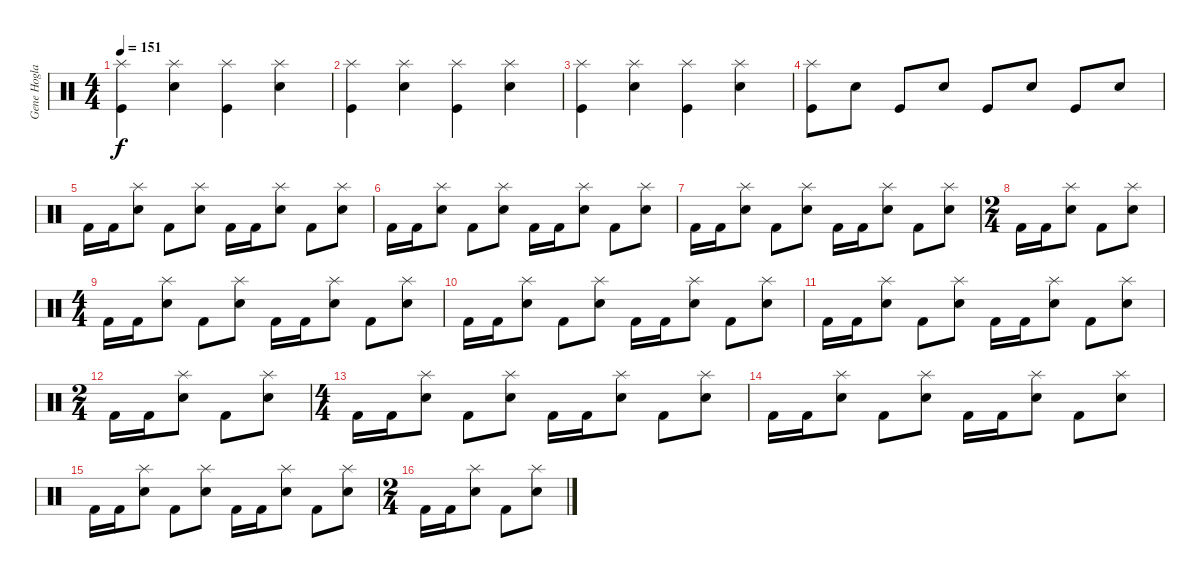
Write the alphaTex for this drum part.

\track ("Gene Hoglan" "Gene Hogla") {instrument percussion}
\staff {score}
\articulation defaults
\ts (4 4)
\tempo 151
\clef neutral
\ks c
("Kick (hit)" "Splash (hit)").4{dy f} ("Snare (hit) 2" "Splash (hit)").4 ("Kick (hit)" "Splash (hit)").4 ("Snare (hit) 2" "Splash (hit)").4 |
("Kick (hit)" "Splash (hit)").4 ("Snare (hit) 2" "Splash (hit)").4 ("Kick (hit)" "Splash (hit)").4 ("Snare (hit) 2" "Splash (hit)").4 |
("Kick (hit)" "Splash (hit)").4 ("Snare (hit) 2" "Splash (hit)").4 ("Kick (hit)" "Splash (hit)").4 ("Snare (hit) 2" "Splash (hit)").4 |
("Kick (hit)" "Splash (hit)").8 "Snare (hit) 2".8 "Kick (hit)".8 "Snare (hit) 2".8 "Kick (hit)".8 "Snare (hit) 2".8 "Kick (hit)".8 "Snare (hit) 2".8 |
"Kick (hit) 2".16 "Kick (hit) 2".16 ("Splash (hit)" "Snare (hit) 2").8 "Kick (hit) 2".8 ("Splash (hit)" "Snare (hit) 2").8 "Kick (hit) 2".16 "Kick (hit) 2".16 ("Splash (hit)" "Snare (hit) 2").8 "Kick (hit) 2".8 ("Splash (hit)" "Snare (hit) 2").8 |
"Kick (hit) 2".16 "Kick (hit) 2".16 ("Splash (hit)" "Snare (hit) 2").8 "Kick (hit) 2".8 ("Splash (hit)" "Snare (hit) 2").8 "Kick (hit) 2".16 "Kick (hit) 2".16 ("Splash (hit)" "Snare (hit) 2").8 "Kick (hit) 2".8 ("Splash (hit)" "Snare (hit) 2").8 |
"Kick (hit) 2".16 "Kick (hit) 2".16 ("Splash (hit)" "Snare (hit) 2").8 "Kick (hit) 2".8 ("Splash (hit)" "Snare (hit) 2").8 "Kick (hit) 2".16 "Kick (hit) 2".16 ("Splash (hit)" "Snare (hit) 2").8 "Kick (hit) 2".8 ("Splash (hit)" "Snare (hit) 2").8 |
\ts (2 4)
"Kick (hit) 2".16 "Kick (hit) 2".16 ("Splash (hit)" "Snare (hit) 2").8 "Kick (hit) 2".8 ("Splash (hit)" "Snare (hit) 2").8 |
\ts (4 4)
"Kick (hit) 2".16 "Kick (hit) 2".16 ("Splash (hit)" "Snare (hit) 2").8 "Kick (hit) 2".8 ("Splash (hit)" "Snare (hit) 2").8 "Kick (hit) 2".16 "Kick (hit) 2".16 ("Splash (hit)" "Snare (hit) 2").8 "Kick (hit) 2".8 ("Splash (hit)" "Snare (hit) 2").8 |
"Kick (hit) 2".16 "Kick (hit) 2".16 ("Splash (hit)" "Snare (hit) 2").8 "Kick (hit) 2".8 ("Splash (hit)" "Snare (hit) 2").8 "Kick (hit) 2".16 "Kick (hit) 2".16 ("Splash (hit)" "Snare (hit) 2").8 "Kick (hit) 2".8 ("Splash (hit)" "Snare (hit) 2").8 |
"Kick (hit) 2".16 "Kick (hit) 2".16 ("Splash (hit)" "Snare (hit) 2").8 "Kick (hit) 2".8 ("Splash (hit)" "Snare (hit) 2").8 "Kick (hit) 2".16 "Kick (hit) 2".16 ("Splash (hit)" "Snare (hit) 2").8 "Kick (hit) 2".8 ("Splash (hit)" "Snare (hit) 2").8 |
\ts (2 4)
"Kick (hit) 2".16 "Kick (hit) 2".16 ("Splash (hit)" "Snare (hit) 2").8 "Kick (hit) 2".8 ("Splash (hit)" "Snare (hit) 2").8 |
\ts (4 4)
"Kick (hit) 2".16 "Kick (hit) 2".16 ("Splash (hit)" "Snare (hit) 2").8 "Kick (hit) 2".8 ("Splash (hit)" "Snare (hit) 2").8 "Kick (hit) 2".16 "Kick (hit) 2".16 ("Splash (hit)" "Snare (hit) 2").8 "Kick (hit) 2".8 ("Splash (hit)" "Snare (hit) 2").8 |
"Kick (hit) 2".16 "Kick (hit) 2".16 ("Splash (hit)" "Snare (hit) 2").8 "Kick (hit) 2".8 ("Splash (hit)" "Snare (hit) 2").8 "Kick (hit) 2".16 "Kick (hit) 2".16 ("Splash (hit)" "Snare (hit) 2").8 "Kick (hit) 2".8 ("Splash (hit)" "Snare (hit) 2").8 |
"Kick (hit) 2".16 "Kick (hit) 2".16 ("Splash (hit)" "Snare (hit) 2").8 "Kick (hit) 2".8 ("Splash (hit)" "Snare (hit) 2").8 "Kick (hit) 2".16 "Kick (hit) 2".16 ("Splash (hit)" "Snare (hit) 2").8 "Kick (hit) 2".8 ("Splash (hit)" "Snare (hit) 2").8 |
\ts (2 4)
"Kick (hit) 2".16 "Kick (hit) 2".16 ("Splash (hit)" "Snare (hit) 2").8 "Kick (hit) 2".8 ("Splash (hit)" "Snare (hit) 2").8
